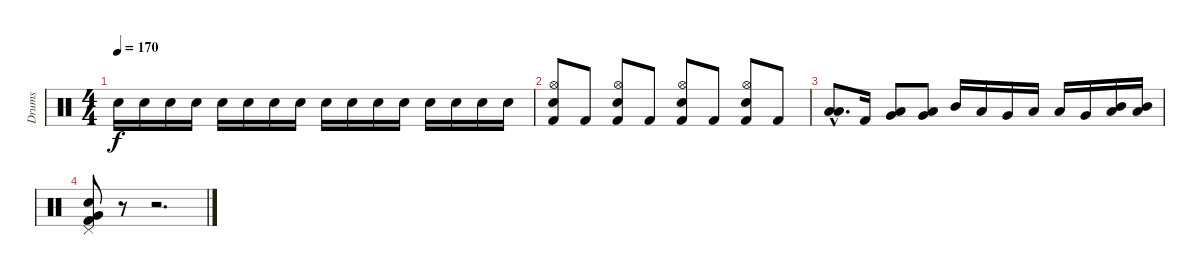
\track ("Drums" "Drums") {instrument percussion}
\staff {score}
\articulation defaults
\ts (4 4)
\tempo 170
\clef neutral
\ks c "Electric Snare (hit)".16{dy f} "Electric Snare (hit)".16 "Electric Snare (hit)".16 "Electric Snare (hit)".16 "Electric Snare (hit)".16 "Electric Snare (hit)".16 "Electric Snare (hit)".16 "Electric Snare (hit)".16 "Electric Snare (hit)".16 "Electric Snare (hit)".16 "Electric Snare (hit)".16 "Electric Snare (hit)".16 "Electric Snare (hit)".16 "Electric Snare (hit)".16 "Electric Snare (hit)".16 "Electric Snare (hit)".16
|
("Hi-Hat (open)" "Kick (hit) 2" "Electric Snare (hit)").8 "Kick (hit) 2".8 ("Hi-Hat (open)" "Kick (hit) 2" "Electric Snare (hit)").8 "Kick (hit) 2".8 ("Hi-Hat (open)" "Kick (hit) 2" "Electric Snare (hit)").8 "Kick (hit) 2".8 ("Hi-Hat (open)" "Kick (hit) 2" "Electric Snare (hit)").8 "Kick (hit) 2".8 |
("Low Tom (hit)"{hac} "Low Floor Tom (hit)"{hac}).8{d} "Kick (hit) 2".16 ("Low Tom (hit)" "Very Low Tom (hit)").8 ("Low Tom (hit)" "Very Low Tom (hit)").8 "Mid Tom (hit)".16 "Low Tom (hit)".16 "Very Low Tom (hit)".16 "Low Floor Tom (hit)".16 "Low Tom (hit)".16 "Very Low Tom (hit)".16 ("Mid Tom (hit)" "Low Floor Tom (hit)").16 ("Mid Tom (hit)" "Low Floor Tom (hit)").16 |
("Electric Snare (hit)" "Kick (hit) 2" "Very Low Tom (hit)" "Pedal Hi-Hat (hit)").8 r.8 r.2{d}
